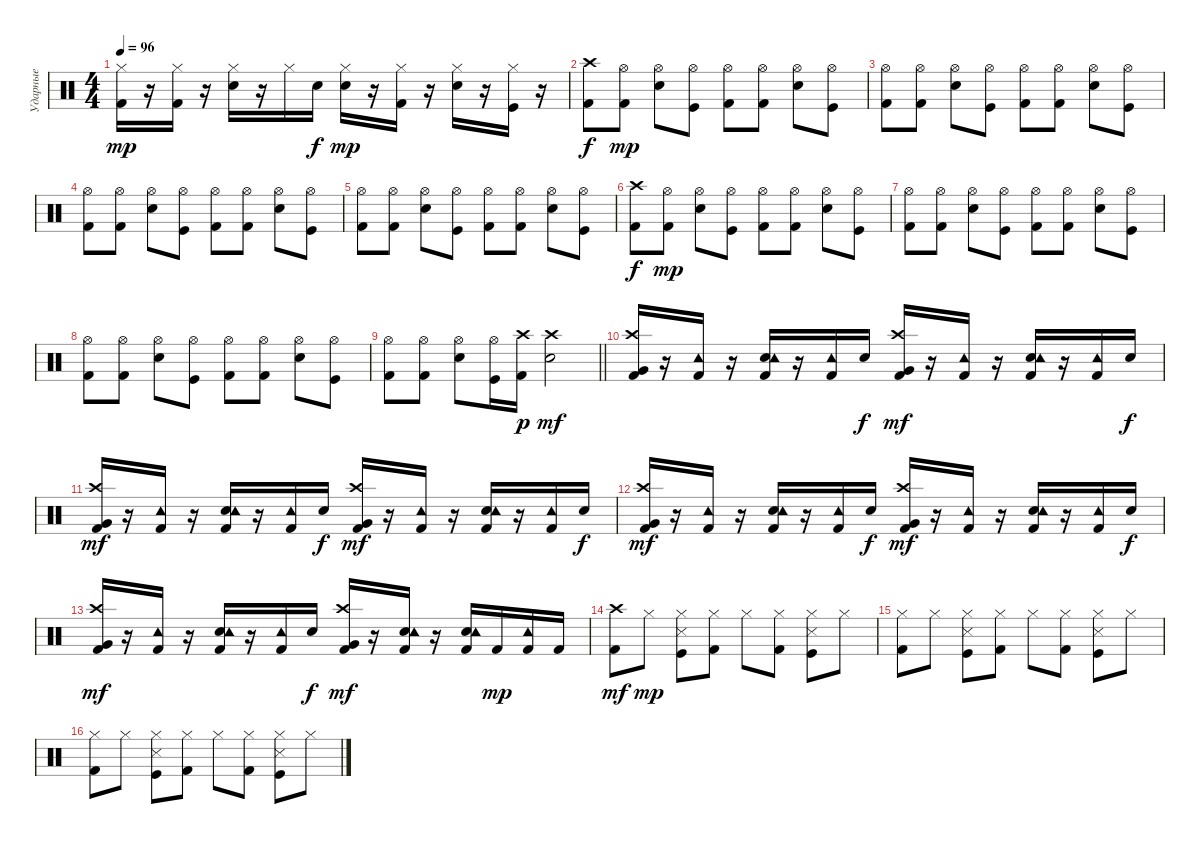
\track ("Ударные" "Ударные") {instrument percussion}
\staff {score}
\articulation defaults
\ts (4 4)
\tempo 96
\clef neutral
\ks c
("Hi-Hat (closed)" "Kick (hit) 2").16{dy mp} r.16 ("Hi-Hat (closed)" "Kick (hit) 2").16 r.16 ("Hi-Hat (closed)" "Electric Snare (hit)").16 r.16 "Hi-Hat (closed)".16 "Electric Snare (hit)".16{dy f} ("Hi-Hat (closed)" "Electric Snare (hit)").16{dy mp} r.16 ("Hi-Hat (closed)" "Kick (hit) 2").16 r.16 ("Hi-Hat (closed)" "Electric Snare (hit)").16 r.16 ("Hi-Hat (closed)" "Kick (hit)").16 r.16 |
("Crash high (hit)" "Kick (hit) 2").8{dy f} ("Hi-Hat (open)" "Kick (hit) 2").8{dy mp} ("Hi-Hat (open)" "Electric Snare (hit)").8 ("Hi-Hat (open)" "Kick (hit)").8 ("Hi-Hat (open)" "Kick (hit) 2").8 ("Hi-Hat (open)" "Kick (hit) 2").8 ("Hi-Hat (open)" "Electric Snare (hit)").8 ("Hi-Hat (open)" "Kick (hit)").8 |
("Hi-Hat (open)" "Kick (hit) 2").8 ("Hi-Hat (open)" "Kick (hit) 2").8 ("Hi-Hat (open)" "Electric Snare (hit)").8 ("Hi-Hat (open)" "Kick (hit)").8 ("Hi-Hat (open)" "Kick (hit) 2").8 ("Hi-Hat (open)" "Kick (hit) 2").8 ("Hi-Hat (open)" "Electric Snare (hit)").8 ("Hi-Hat (open)" "Kick (hit)").8 |
("Hi-Hat (open)" "Kick (hit) 2").8 ("Hi-Hat (open)" "Kick (hit) 2").8 ("Hi-Hat (open)" "Electric Snare (hit)").8 ("Hi-Hat (open)" "Kick (hit)").8 ("Hi-Hat (open)" "Kick (hit) 2").8 ("Hi-Hat (open)" "Kick (hit) 2").8 ("Hi-Hat (open)" "Electric Snare (hit)").8 ("Hi-Hat (open)" "Kick (hit)").8 |
("Hi-Hat (open)" "Kick (hit) 2").8 ("Hi-Hat (open)" "Kick (hit) 2").8 ("Hi-Hat (open)" "Electric Snare (hit)").8 ("Hi-Hat (open)" "Kick (hit)").8 ("Hi-Hat (open)" "Kick (hit) 2").8 ("Hi-Hat (open)" "Kick (hit) 2").8 ("Hi-Hat (open)" "Electric Snare (hit)").8 ("Hi-Hat (open)" "Kick (hit)").8 |
("Crash high (hit)" "Kick (hit) 2").8{dy f} ("Hi-Hat (open)" "Kick (hit) 2").8{dy mp} ("Hi-Hat (open)" "Electric Snare (hit)").8 ("Hi-Hat (open)" "Kick (hit)").8 ("Hi-Hat (open)" "Kick (hit) 2").8 ("Hi-Hat (open)" "Kick (hit) 2").8 ("Hi-Hat (open)" "Electric Snare (hit)").8 ("Hi-Hat (open)" "Kick (hit)").8 |
("Hi-Hat (open)" "Kick (hit) 2").8 ("Hi-Hat (open)" "Kick (hit) 2").8 ("Hi-Hat (open)" "Electric Snare (hit)").8 ("Hi-Hat (open)" "Kick (hit)").8 ("Hi-Hat (open)" "Kick (hit) 2").8 ("Hi-Hat (open)" "Kick (hit) 2").8 ("Hi-Hat (open)" "Electric Snare (hit)").8 ("Hi-Hat (open)" "Kick (hit)").8 |
("Hi-Hat (open)" "Kick (hit) 2").8 ("Hi-Hat (open)" "Kick (hit) 2").8 ("Hi-Hat (open)" "Electric Snare (hit)").8 ("Hi-Hat (open)" "Kick (hit)").8 ("Hi-Hat (open)" "Kick (hit) 2").8 ("Hi-Hat (open)" "Kick (hit) 2").8 ("Hi-Hat (open)" "Electric Snare (hit)").8 ("Hi-Hat (open)" "Kick (hit)").8 |
\barLineRight lightlight
("Hi-Hat (open)" "Kick (hit) 2").8 ("Hi-Hat (open)" "Kick (hit) 2").8 ("Hi-Hat (open)" "Electric Snare (hit)").8 ("Hi-Hat (open)" "Kick (hit)").16 ("Crash high (hit)" "Kick (hit) 2").16{dy p} ("Crash high (hit)" "Electric Snare (hit)").2{dy mf} |
("Very Low Tom (hit)" "Crash high (hit)" "Kick (hit) 2").16 r.16 ("Tambourine (hit)" "Kick (hit) 2").16 r.16 ("Electric Snare (hit)" "Tambourine (hit)" "Kick (hit) 2").16 r.16 ("Tambourine (hit)" "Kick (hit) 2").16 "Electric Snare (hit)".16{dy f} ("Very Low Tom (hit)" "Crash high (hit)" "Kick (hit) 2").16{dy mf} r.16 ("Tambourine (hit)" "Kick (hit) 2").16 r.16 ("Electric Snare (hit)" "Tambourine (hit)" "Kick (hit) 2").16 r.16 ("Tambourine (hit)" "Kick (hit) 2").16 "Electric Snare (hit)".16{dy f} |
("Very Low Tom (hit)" "Crash high (hit)" "Kick (hit) 2").16{dy mf} r.16 ("Tambourine (hit)" "Kick (hit) 2").16 r.16 ("Electric Snare (hit)" "Tambourine (hit)" "Kick (hit) 2").16 r.16 ("Tambourine (hit)" "Kick (hit) 2").16 "Electric Snare (hit)".16{dy f} ("Very Low Tom (hit)" "Crash high (hit)" "Kick (hit) 2").16{dy mf} r.16 ("Tambourine (hit)" "Kick (hit) 2").16 r.16 ("Electric Snare (hit)" "Tambourine (hit)" "Kick (hit) 2").16 r.16 ("Tambourine (hit)" "Kick (hit) 2").16 "Electric Snare (hit)".16{dy f} |
("Very Low Tom (hit)" "Crash high (hit)" "Kick (hit) 2").16{dy mf} r.16 ("Tambourine (hit)" "Kick (hit) 2").16 r.16 ("Electric Snare (hit)" "Tambourine (hit)" "Kick (hit) 2").16 r.16 ("Tambourine (hit)" "Kick (hit) 2").16 "Electric Snare (hit)".16{dy f} ("Very Low Tom (hit)" "Crash high (hit)" "Kick (hit) 2").16{dy mf} r.16 ("Tambourine (hit)" "Kick (hit) 2").16 r.16 ("Electric Snare (hit)" "Tambourine (hit)" "Kick (hit) 2").16 r.16 ("Tambourine (hit)" "Kick (hit) 2").16 "Electric Snare (hit)".16{dy f} |
("Very Low Tom (hit)" "Crash high (hit)" "Kick (hit) 2").16{dy mf} r.16 ("Tambourine (hit)" "Kick (hit) 2").16 r.16 ("Electric Snare (hit)" "Tambourine (hit)" "Kick (hit) 2").16 r.16 ("Tambourine (hit)" "Kick (hit) 2").16 "Electric Snare (hit)".16{dy f} ("Very Low Tom (hit)" "Crash high (hit)" "Kick (hit) 2").16{dy mf} r.16 ("Electric Snare (hit)" "Tambourine (hit)" "Kick (hit) 2").16 r.16 ("Electric Snare (hit)" "Tambourine (hit)" "Kick (hit) 2").16 "Kick (hit) 2".16{dy mp} ("Tambourine (hit)" "Kick (hit) 2").16 "Kick (hit) 2".16 |
("Crash high (hit)" "Kick (hit) 2").8{dy mf} "Hi-Hat (closed)".8{dy mp} ("Hi-Hat (closed)" "Snare (side stick) 3" "Kick (hit)").8 ("Hi-Hat (closed)" "Kick (hit) 2").8 "Hi-Hat (closed)".8 ("Hi-Hat (closed)" "Kick (hit) 2").8 ("Hi-Hat (closed)" "Snare (side stick) 3" "Kick (hit)").8 "Hi-Hat (closed)".8 |
("Hi-Hat (closed)" "Kick (hit) 2").8 "Hi-Hat (closed)".8 ("Hi-Hat (closed)" "Snare (side stick) 3" "Kick (hit)").8 ("Hi-Hat (closed)" "Kick (hit) 2").8 "Hi-Hat (closed)".8 ("Hi-Hat (closed)" "Kick (hit) 2").8 ("Hi-Hat (closed)" "Snare (side stick) 3" "Kick (hit)").8 "Hi-Hat (closed)".8 |
("Hi-Hat (closed)" "Kick (hit) 2").8 "Hi-Hat (closed)".8 ("Hi-Hat (closed)" "Snare (side stick) 3" "Kick (hit)").8 ("Hi-Hat (closed)" "Kick (hit) 2").8 "Hi-Hat (closed)".8 ("Hi-Hat (closed)" "Kick (hit) 2").8 ("Hi-Hat (closed)" "Snare (side stick) 3" "Kick (hit)").8 "Hi-Hat (closed)".8
